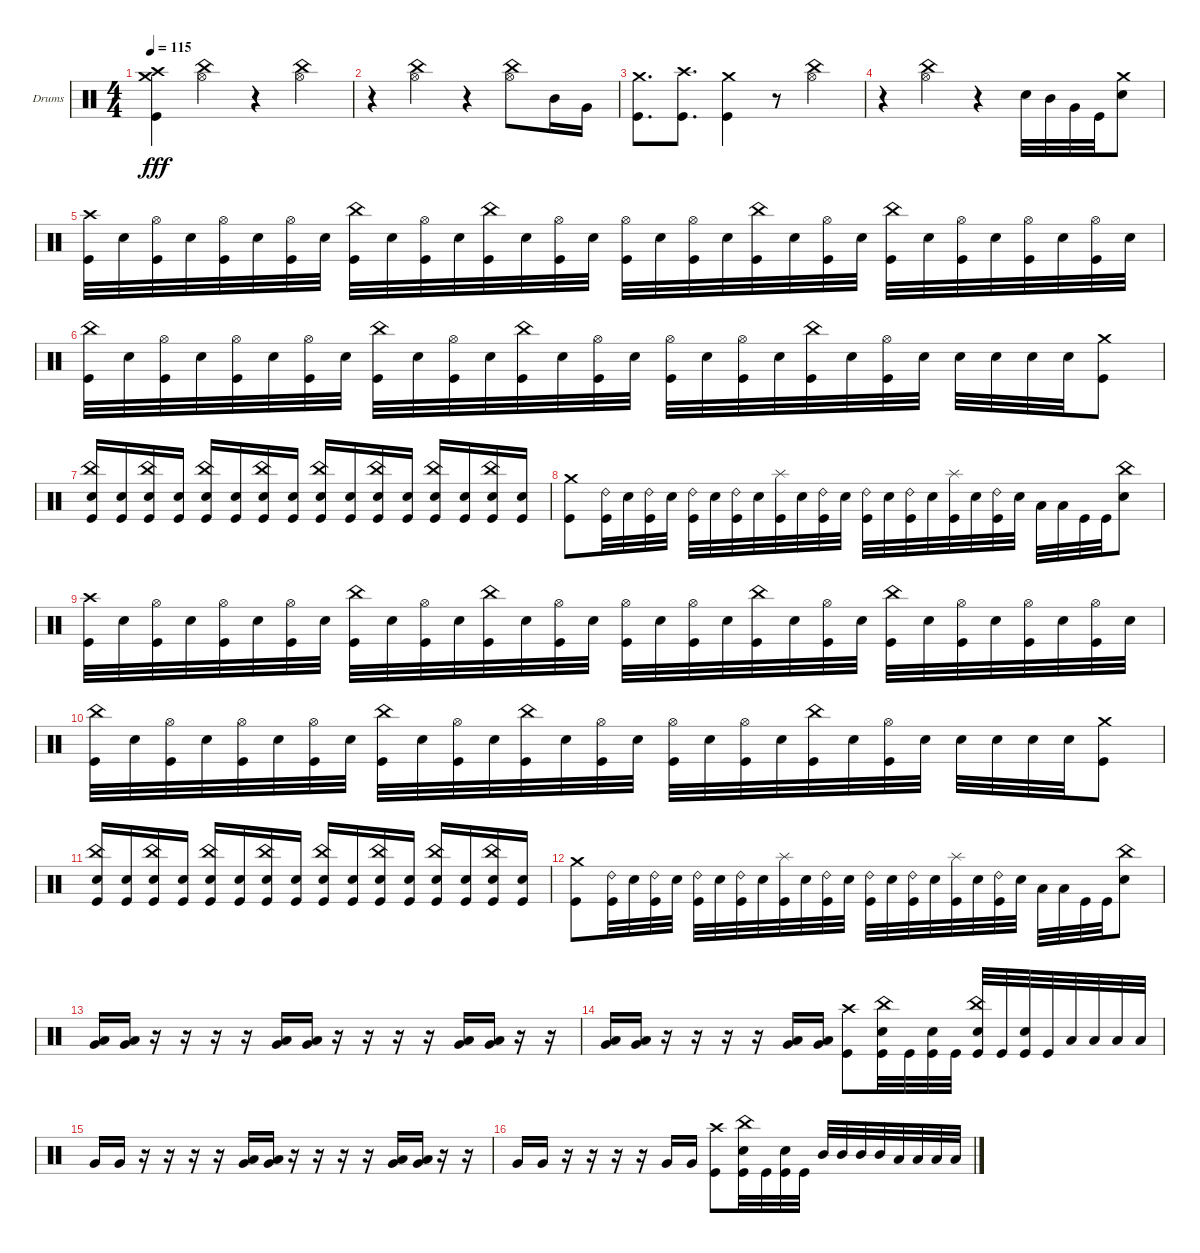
\bracketExtendMode groupsimilarinstruments
\firstSystemTrackNameOrientation horizontal
\otherSystemsTrackNameOrientation horizontal
\track ("Drumkit" "Drums") {instrument percussion}
\staff {score}
\articulation defaults
\ts (4 4)
\tempo 115
\clef neutral
\ks c
("Kick (hit)" "Crash medium (hit)" "Crash high (hit)").4{dy fff} ("China (hit)" "Hi-Hat (open)").4 r.4 ("China (hit)" "Hi-Hat (open)").4 |
r.4 ("China (hit)" "Hi-Hat (open)").4 r.4 ("China (hit)" "Hi-Hat (open)").8 "Mid Tom (hit)".16 "Very Low Tom (hit)".16 |
("Kick (hit)" "Crash medium (hit)").8{d} ("Kick (hit)" "Crash high (hit)").8{d} ("Kick (hit)" "Crash medium (hit)").4 r.8 ("China (hit)" "Hi-Hat (open)").4 |
r.4 ("China (hit)" "Hi-Hat (open)").4 r.4 "Snare (hit) 2".32 "Mid Tom (hit)".32 "Very Low Tom (hit)".32 "Kick (hit)".32 ("Snare (hit) 2" "Crash medium (hit)").8 |
("Kick (hit)" "Crash high (hit)").32 "Snare (hit) 2".32 ("Kick (hit)" "Hi-Hat (open)").32 "Snare (hit) 2".32 ("Kick (hit)" "Hi-Hat (open)").32 "Snare (hit) 2".32 ("Kick (hit)" "Hi-Hat (open)").32 "Snare (hit) 2".32 ("Kick (hit)" "China (hit)").32 "Snare (hit) 2".32 ("Kick (hit)" "Hi-Hat (open)").32 "Snare (hit) 2".32 ("Kick (hit)" "China (hit)").32 "Snare (hit) 2".32 ("Kick (hit)" "Hi-Hat (open)").32 "Snare (hit) 2".32 ("Kick (hit)" "Hi-Hat (open)").32 "Snare (hit) 2".32 ("Kick (hit)" "Hi-Hat (open)").32 "Snare (hit) 2".32 ("Kick (hit)" "China (hit)").32 "Snare (hit) 2".32 ("Kick (hit)" "Hi-Hat (open)").32 "Snare (hit) 2".32 ("Kick (hit)" "China (hit)").32 "Snare (hit) 2".32 ("Kick (hit)" "Hi-Hat (open)").32 "Snare (hit) 2".32 ("Kick (hit)" "Hi-Hat (open)").32 "Snare (hit) 2".32 ("Kick (hit)" "Hi-Hat (open)").32 "Snare (hit) 2".32 |
("Kick (hit)" "China (hit)").32 "Snare (hit) 2".32 ("Kick (hit)" "Hi-Hat (open)").32 "Snare (hit) 2".32 ("Kick (hit)" "Hi-Hat (open)").32 "Snare (hit) 2".32 ("Kick (hit)" "Hi-Hat (open)").32 "Snare (hit) 2".32 ("Kick (hit)" "China (hit)").32 "Snare (hit) 2".32 ("Kick (hit)" "Hi-Hat (open)").32 "Snare (hit) 2".32 ("Kick (hit)" "China (hit)").32 "Snare (hit) 2".32 ("Kick (hit)" "Hi-Hat (open)").32 "Snare (hit) 2".32 ("Kick (hit)" "Hi-Hat (open)").32 "Snare (hit) 2".32 ("Kick (hit)" "Hi-Hat (open)").32 "Snare (hit) 2".32 ("Kick (hit)" "China (hit)").32 "Snare (hit) 2".32 ("Kick (hit)" "Hi-Hat (open)").32 "Snare (hit) 2".32 "Snare (hit) 2".32 "Snare (hit) 2".32 "Snare (hit) 2".32 "Snare (hit) 2".32 ("Crash medium (hit)" "Kick (hit)").8 |
("Snare (hit) 2" "Kick (hit)" "China (hit)").16 ("Snare (hit) 2" "Kick (hit)").16 ("Snare (hit) 2" "Kick (hit)" "China (hit)").16 ("Snare (hit) 2" "Kick (hit)").16 ("Snare (hit) 2" "Kick (hit)" "China (hit)").16 ("Snare (hit) 2" "Kick (hit)").16 ("Snare (hit) 2" "Kick (hit)" "China (hit)").16 ("Snare (hit) 2" "Kick (hit)").16 ("Snare (hit) 2" "Kick (hit)" "China (hit)").16 ("Snare (hit) 2" "Kick (hit)").16 ("Snare (hit) 2" "Kick (hit)" "China (hit)").16 ("Snare (hit) 2" "Kick (hit)").16 ("Snare (hit) 2" "Kick (hit)" "China (hit)").16 ("Snare (hit) 2" "Kick (hit)").16 ("Snare (hit) 2" "Kick (hit)" "China (hit)").16 ("Snare (hit) 2" "Kick (hit)").16 |
("Kick (hit)" "Crash medium (hit)").8 ("Kick (hit)" "Ride (bell) 2").32 "Snare (hit) 2".32 ("Kick (hit)" "Ride (bell) 2").32 "Snare (hit) 2".32 ("Kick (hit)" "Ride (bell) 2").32 "Snare (hit) 2".32 ("Kick (hit)" "Ride (bell) 2").32 "Snare (hit) 2".32 ("Kick (hit)" "Splash (hit)").32 "Snare (hit) 2".32 ("Kick (hit)" "Ride (bell) 2").32 "Snare (hit) 2".32 ("Kick (hit)" "Ride (bell) 2").32 "Snare (hit) 2".32 ("Kick (hit)" "Ride (bell) 2").32 "Snare (hit) 2".32 ("Kick (hit)" "Splash (hit)").32 "Snare (hit) 2".32 ("Kick (hit)" "Ride (bell) 2").32 "Snare (hit) 2".32 "Low Tom (hit)".32 "Low Tom (hit)".32 "Kick (hit)".32 "Kick (hit)".32 ("Snare (hit) 2" "China (hit)").8 |
("Kick (hit)" "Crash high (hit)").32 "Snare (hit) 2".32 ("Kick (hit)" "Hi-Hat (open)").32 "Snare (hit) 2".32 ("Kick (hit)" "Hi-Hat (open)").32 "Snare (hit) 2".32 ("Kick (hit)" "Hi-Hat (open)").32 "Snare (hit) 2".32 ("Kick (hit)" "China (hit)").32 "Snare (hit) 2".32 ("Kick (hit)" "Hi-Hat (open)").32 "Snare (hit) 2".32 ("Kick (hit)" "China (hit)").32 "Snare (hit) 2".32 ("Kick (hit)" "Hi-Hat (open)").32 "Snare (hit) 2".32 ("Kick (hit)" "Hi-Hat (open)").32 "Snare (hit) 2".32 ("Kick (hit)" "Hi-Hat (open)").32 "Snare (hit) 2".32 ("Kick (hit)" "China (hit)").32 "Snare (hit) 2".32 ("Kick (hit)" "Hi-Hat (open)").32 "Snare (hit) 2".32 ("Kick (hit)" "China (hit)").32 "Snare (hit) 2".32 ("Kick (hit)" "Hi-Hat (open)").32 "Snare (hit) 2".32 ("Kick (hit)" "Hi-Hat (open)").32 "Snare (hit) 2".32 ("Kick (hit)" "Hi-Hat (open)").32 "Snare (hit) 2".32 |
("Kick (hit)" "China (hit)").32 "Snare (hit) 2".32 ("Kick (hit)" "Hi-Hat (open)").32 "Snare (hit) 2".32 ("Kick (hit)" "Hi-Hat (open)").32 "Snare (hit) 2".32 ("Kick (hit)" "Hi-Hat (open)").32 "Snare (hit) 2".32 ("Kick (hit)" "China (hit)").32 "Snare (hit) 2".32 ("Kick (hit)" "Hi-Hat (open)").32 "Snare (hit) 2".32 ("Kick (hit)" "China (hit)").32 "Snare (hit) 2".32 ("Kick (hit)" "Hi-Hat (open)").32 "Snare (hit) 2".32 ("Kick (hit)" "Hi-Hat (open)").32 "Snare (hit) 2".32 ("Kick (hit)" "Hi-Hat (open)").32 "Snare (hit) 2".32 ("Kick (hit)" "China (hit)").32 "Snare (hit) 2".32 ("Kick (hit)" "Hi-Hat (open)").32 "Snare (hit) 2".32 "Snare (hit) 2".32 "Snare (hit) 2".32 "Snare (hit) 2".32 "Snare (hit) 2".32 ("Crash medium (hit)" "Kick (hit)").8 |
("Snare (hit) 2" "Kick (hit)" "China (hit)").16 ("Snare (hit) 2" "Kick (hit)").16 ("Snare (hit) 2" "Kick (hit)" "China (hit)").16 ("Snare (hit) 2" "Kick (hit)").16 ("Snare (hit) 2" "Kick (hit)" "China (hit)").16 ("Snare (hit) 2" "Kick (hit)").16 ("Snare (hit) 2" "Kick (hit)" "China (hit)").16 ("Snare (hit) 2" "Kick (hit)").16 ("Snare (hit) 2" "Kick (hit)" "China (hit)").16 ("Snare (hit) 2" "Kick (hit)").16 ("Snare (hit) 2" "Kick (hit)" "China (hit)").16 ("Snare (hit) 2" "Kick (hit)").16 ("Snare (hit) 2" "Kick (hit)" "China (hit)").16 ("Snare (hit) 2" "Kick (hit)").16 ("Snare (hit) 2" "Kick (hit)" "China (hit)").16 ("Snare (hit) 2" "Kick (hit)").16 |
("Kick (hit)" "Crash medium (hit)").8 ("Kick (hit)" "Ride (bell) 2").32 "Snare (hit) 2".32 ("Kick (hit)" "Ride (bell) 2").32 "Snare (hit) 2".32 ("Kick (hit)" "Ride (bell) 2").32 "Snare (hit) 2".32 ("Kick (hit)" "Ride (bell) 2").32 "Snare (hit) 2".32 ("Kick (hit)" "Splash (hit)").32 "Snare (hit) 2".32 ("Kick (hit)" "Ride (bell) 2").32 "Snare (hit) 2".32 ("Kick (hit)" "Ride (bell) 2").32 "Snare (hit) 2".32 ("Kick (hit)" "Ride (bell) 2").32 "Snare (hit) 2".32 ("Kick (hit)" "Splash (hit)").32 "Snare (hit) 2".32 ("Kick (hit)" "Ride (bell) 2").32 "Snare (hit) 2".32 "Low Tom (hit)".32 "Low Tom (hit)".32 "Kick (hit)".32 "Kick (hit)".32 ("Snare (hit) 2" "China (hit)").8 |
("Very Low Tom (hit)" "Low Tom (hit)").16 ("Very Low Tom (hit)" "Low Tom (hit)").16 r.16 r.16 r.16 r.16 ("Very Low Tom (hit)" "Low Tom (hit)").16 ("Very Low Tom (hit)" "Low Tom (hit)").16 r.16 r.16 r.16 r.16 ("Very Low Tom (hit)" "Low Tom (hit)").16 ("Very Low Tom (hit)" "Low Tom (hit)").16 r.16 r.16 |
("Very Low Tom (hit)" "Low Tom (hit)").16 ("Very Low Tom (hit)" "Low Tom (hit)").16 r.16 r.16 r.16 r.16 ("Very Low Tom (hit)" "Low Tom (hit)").16 ("Very Low Tom (hit)" "Low Tom (hit)").16 ("Kick (hit)" "Crash high (hit)").8 ("Kick (hit)" "Snare (hit) 2" "China (hit)").32 "Kick (hit)".32 ("Kick (hit)" "Snare (hit) 2").32 "Kick (hit)".32 ("Kick (hit)" "Snare (hit) 2" "China (hit)").32 "Kick (hit)".32 ("Snare (hit) 2" "Kick (hit)").32 "Kick (hit)".32 "Low Tom (hit)".32 "Low Tom (hit)".32 "Low Tom (hit)".32 "Low Tom (hit)".32 |
"Very Low Tom (hit)".16 "Very Low Tom (hit)".16 r.16 r.16 r.16 r.16 ("Low Tom (hit)" "Very Low Tom (hit)").16 ("Very Low Tom (hit)" "Low Tom (hit)").16 r.16 r.16 r.16 r.16 ("Very Low Tom (hit)" "Low Tom (hit)").16 ("Very Low Tom (hit)" "Low Tom (hit)").16 r.16 r.16 |
"Very Low Tom (hit)".16 "Very Low Tom (hit)".16 r.16 r.16 r.16 r.16 "Very Low Tom (hit)".16 "Very Low Tom (hit)".16 ("Kick (hit)" "Crash high (hit)").8 ("Kick (hit)" "Snare (hit) 2" "China (hit)").32 "Kick (hit)".32 ("Kick (hit)" "Snare (hit) 2").32 "Kick (hit)".32 "Mid Tom (hit)".32 "Mid Tom (hit)".32 "Mid Tom (hit)".32 "Mid Tom (hit)".32 "Low Tom (hit)".32 "Low Tom (hit)".32 "Low Tom (hit)".32 "Low Tom (hit)".32
